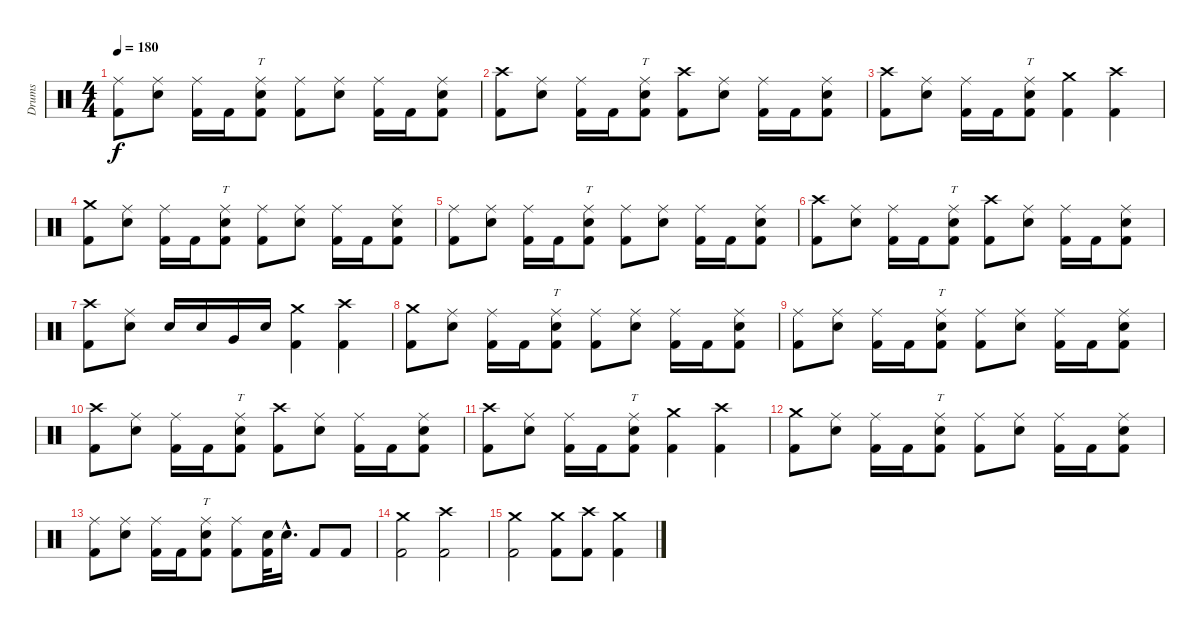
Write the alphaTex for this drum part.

\track ("Drums" "Drums") {instrument percussion}
\staff {score}
\articulation defaults
\ts (4 4)
\tempo 180
\clef neutral
\ks c
("Ride (middle)" "Kick (hit) 2").8{dy f} ("Ride (middle)" "Electric Snare (hit)").8 ("Ride (middle)" "Kick (hit) 2").16 "Kick (hit) 2".16 ("Ride (middle)" "Electric Snare (hit)" "Kick (hit) 2").8{tt} ("Ride (middle)" "Kick (hit) 2").8 ("Ride (middle)" "Electric Snare (hit)").8 ("Ride (middle)" "Kick (hit) 2").16 "Kick (hit) 2".16 ("Ride (middle)" "Electric Snare (hit)" "Kick (hit) 2").8 |
("Crash high (hit)" "Kick (hit) 2").8 ("Ride (middle)" "Electric Snare (hit)").8 ("Ride (middle)" "Kick (hit) 2").16 "Kick (hit) 2".16 ("Ride (middle)" "Electric Snare (hit)" "Kick (hit) 2").8{tt} ("Crash high (hit)" "Kick (hit) 2").8 ("Ride (middle)" "Electric Snare (hit)").8 ("Ride (middle)" "Kick (hit) 2").16 "Kick (hit) 2".16 ("Ride (middle)" "Electric Snare (hit)" "Kick (hit) 2").8 |
("Crash high (hit)" "Kick (hit) 2").8 ("Ride (middle)" "Electric Snare (hit)").8 ("Ride (middle)" "Kick (hit) 2").16 "Kick (hit) 2".16 ("Ride (middle)" "Electric Snare (hit)" "Kick (hit) 2").8{tt} ("Crash medium (hit)" "Kick (hit) 2").4 ("Crash high (hit)" "Kick (hit) 2").4 |
("Crash medium (hit)" "Kick (hit) 2").8 ("Ride (middle)" "Electric Snare (hit)").8 ("Ride (middle)" "Kick (hit) 2").16 "Kick (hit) 2".16 ("Ride (middle)" "Electric Snare (hit)" "Kick (hit) 2").8{tt} ("Ride (middle)" "Kick (hit) 2").8 ("Ride (middle)" "Electric Snare (hit)").8 ("Ride (middle)" "Kick (hit) 2").16 "Kick (hit) 2".16 ("Ride (middle)" "Electric Snare (hit)" "Kick (hit) 2").8 |
("Ride (middle)" "Kick (hit) 2").8 ("Ride (middle)" "Electric Snare (hit)").8 ("Ride (middle)" "Kick (hit) 2").16 "Kick (hit) 2".16 ("Ride (middle)" "Electric Snare (hit)" "Kick (hit) 2").8{tt} ("Ride (middle)" "Kick (hit) 2").8 ("Ride (middle)" "Electric Snare (hit)").8 ("Ride (middle)" "Kick (hit) 2").16 "Kick (hit) 2".16 ("Ride (middle)" "Electric Snare (hit)" "Kick (hit) 2").8 |
("Crash high (hit)" "Kick (hit) 2").8 ("Ride (middle)" "Electric Snare (hit)").8 ("Ride (middle)" "Kick (hit) 2").16 "Kick (hit) 2".16 ("Ride (middle)" "Electric Snare (hit)" "Kick (hit) 2").8{tt} ("Crash high (hit)" "Kick (hit) 2").8 ("Ride (middle)" "Electric Snare (hit)").8 ("Ride (middle)" "Kick (hit) 2").16 "Kick (hit) 2".16 ("Ride (middle)" "Electric Snare (hit)" "Kick (hit) 2").8 |
("Crash high (hit)" "Kick (hit) 2").8 ("Ride (middle)" "Electric Snare (hit)").8 "Electric Snare (hit)".16 "Electric Snare (hit)".16 "Very Low Tom (hit)".16 "Electric Snare (hit)".16 ("Crash medium (hit)" "Kick (hit) 2").4 ("Crash high (hit)" "Kick (hit) 2").4 |
("Crash medium (hit)" "Kick (hit) 2").8 ("Ride (middle)" "Electric Snare (hit)").8 ("Ride (middle)" "Kick (hit) 2").16 "Kick (hit) 2".16 ("Ride (middle)" "Electric Snare (hit)" "Kick (hit) 2").8{tt} ("Ride (middle)" "Kick (hit) 2").8 ("Ride (middle)" "Electric Snare (hit)").8 ("Ride (middle)" "Kick (hit) 2").16 "Kick (hit) 2".16 ("Ride (middle)" "Electric Snare (hit)" "Kick (hit) 2").8 |
("Ride (middle)" "Kick (hit) 2").8 ("Ride (middle)" "Electric Snare (hit)").8 ("Ride (middle)" "Kick (hit) 2").16 "Kick (hit) 2".16 ("Ride (middle)" "Electric Snare (hit)" "Kick (hit) 2").8{tt} ("Ride (middle)" "Kick (hit) 2").8 ("Ride (middle)" "Electric Snare (hit)").8 ("Ride (middle)" "Kick (hit) 2").16 "Kick (hit) 2".16 ("Ride (middle)" "Electric Snare (hit)" "Kick (hit) 2").8 |
("Crash high (hit)" "Kick (hit) 2").8 ("Ride (middle)" "Electric Snare (hit)").8 ("Ride (middle)" "Kick (hit) 2").16 "Kick (hit) 2".16 ("Ride (middle)" "Electric Snare (hit)" "Kick (hit) 2").8{tt} ("Crash high (hit)" "Kick (hit) 2").8 ("Ride (middle)" "Electric Snare (hit)").8 ("Ride (middle)" "Kick (hit) 2").16 "Kick (hit) 2".16 ("Ride (middle)" "Electric Snare (hit)" "Kick (hit) 2").8 |
("Crash high (hit)" "Kick (hit) 2").8 ("Ride (middle)" "Electric Snare (hit)").8 ("Ride (middle)" "Kick (hit) 2").16 "Kick (hit) 2".16 ("Ride (middle)" "Electric Snare (hit)" "Kick (hit) 2").8{tt} ("Crash medium (hit)" "Kick (hit) 2").4 ("Crash high (hit)" "Kick (hit) 2").4 |
("Crash medium (hit)" "Kick (hit) 2").8 ("Ride (middle)" "Electric Snare (hit)").8 ("Ride (middle)" "Kick (hit) 2").16 "Kick (hit) 2".16 ("Ride (middle)" "Electric Snare (hit)" "Kick (hit) 2").8{tt} ("Ride (middle)" "Kick (hit) 2").8 ("Ride (middle)" "Electric Snare (hit)").8 ("Ride (middle)" "Kick (hit) 2").16 "Kick (hit) 2".16 ("Ride (middle)" "Electric Snare (hit)" "Kick (hit) 2").8 |
("Ride (middle)" "Kick (hit) 2").8 ("Ride (middle)" "Electric Snare (hit)").8 ("Ride (middle)" "Kick (hit) 2").16 "Kick (hit) 2".16 ("Ride (middle)" "Electric Snare (hit)" "Kick (hit) 2").8{tt} ("Ride (middle)" "Kick (hit) 2").8 ("Electric Snare (hit)" "Kick (hit) 2").32 "Electric Snare (hit)"{hac}.16{d} "Kick (hit) 2".8 "Kick (hit) 2".8 |
("Crash medium (hit)" "Kick (hit) 2").2 ("Crash high (hit)" "Kick (hit) 2").2 |
("Crash medium (hit)" "Kick (hit) 2").2 ("Crash medium (hit)" "Kick (hit) 2").8 ("Crash high (hit)" "Kick (hit) 2").8 ("Crash medium (hit)" "Kick (hit) 2").4
